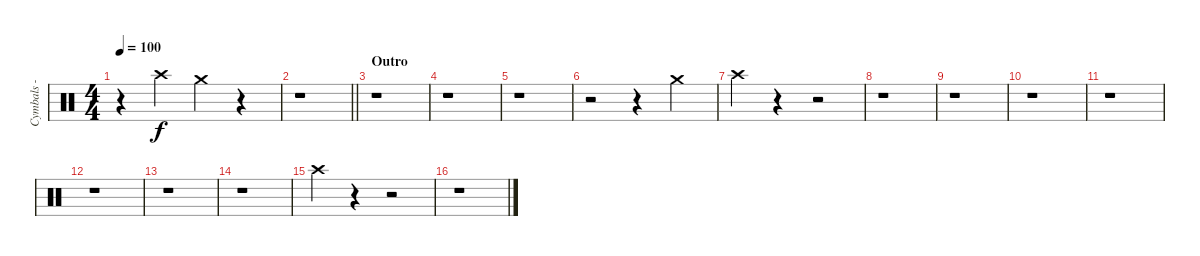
\track ("Cymbals - crash - left" "Cymbals - ") {instrument percussion}
\staff {score}
\articulation defaults
\ts (4 4)
\tempo 100
\clef neutral
\ks c
r.4{dy f} "Crash high (hit)".4 "Crash medium (hit)".4 r.4 |
\barLineRight lightlight
r.1 |
\section ("" "Outro")
r.1 |
r.1 |
r.1 |
r.2 r.4 "Crash medium (hit)".4 |
"Crash high (hit)".4 r.4 r.2 |
r.1 |
r.1 |
r.1 |
r.1 |
r.1 |
r.1 |
r.1 |
"Crash high (hit)".4 r.4 r.2 |
r.1
